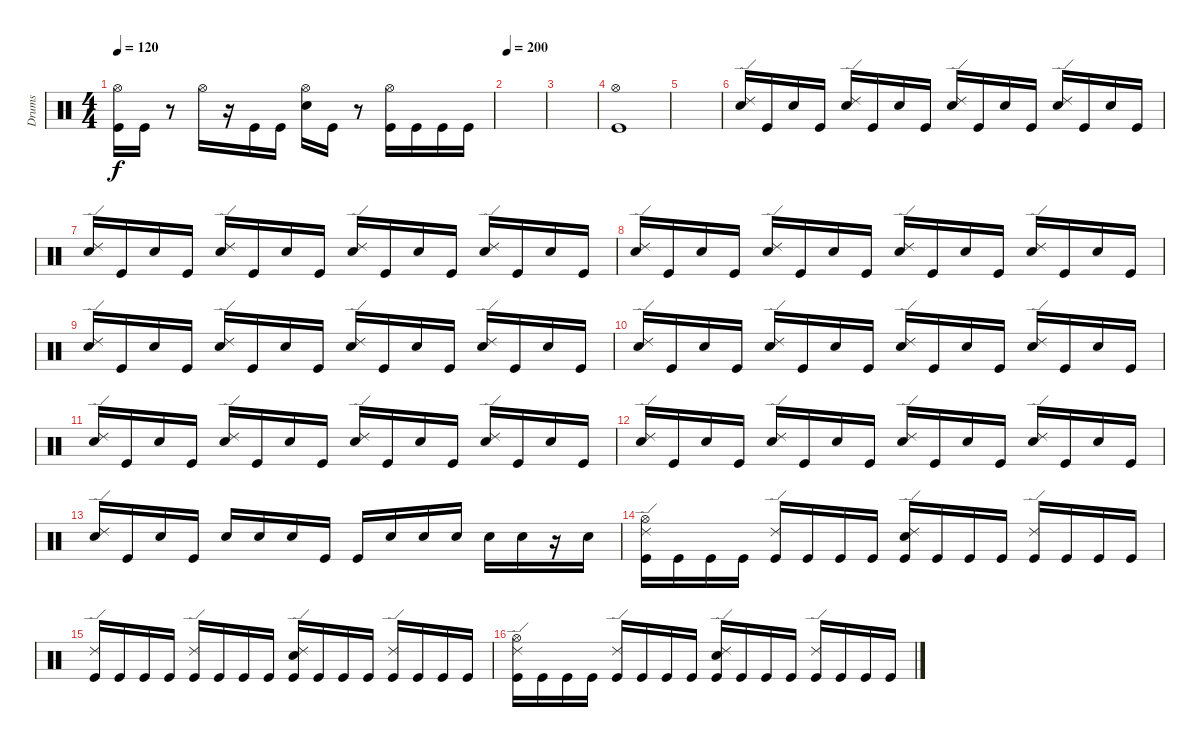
\track ("Drums" "Drums") {instrument percussion}
\staff {score}
\articulation defaults
\ts (4 4)
\tempo 120
\clef neutral
\ks c
("Hi-Hat (open)" "Kick (hit)").16{dy f} "Kick (hit)".16 r.8 "Hi-Hat (open)".16 r.16 "Kick (hit)".16 "Kick (hit)".16 ("Hi-Hat (open)" "Snare (hit) 2").16 "Kick (hit)".16 r.8 ("Hi-Hat (open)" "Kick (hit)").16 "Kick (hit)".16 "Kick (hit)".16 "Kick (hit)".16 |
\tempo 200
|
|
("Hi-Hat (open)" "Kick (hit)").1 |
|
("Ride (edge) 2" "Snare (hit) 2").16 "Kick (hit)".16 "Snare (hit) 2".16 "Kick (hit)".16 ("Ride (edge) 2" "Snare (hit) 2").16 "Kick (hit)".16 "Snare (hit) 2".16 "Kick (hit)".16 ("Ride (edge) 2" "Snare (hit) 2").16 "Kick (hit)".16 "Snare (hit) 2".16 "Kick (hit)".16 ("Ride (edge) 2" "Snare (hit) 2").16 "Kick (hit)".16 "Snare (hit) 2".16 "Kick (hit)".16 |
("Ride (edge) 2" "Snare (hit) 2").16 "Kick (hit)".16 "Snare (hit) 2".16 "Kick (hit)".16 ("Ride (edge) 2" "Snare (hit) 2").16 "Kick (hit)".16 "Snare (hit) 2".16 "Kick (hit)".16 ("Ride (edge) 2" "Snare (hit) 2").16 "Kick (hit)".16 "Snare (hit) 2".16 "Kick (hit)".16 ("Ride (edge) 2" "Snare (hit) 2").16 "Kick (hit)".16 "Snare (hit) 2".16 "Kick (hit)".16 |
("Ride (edge) 2" "Snare (hit) 2").16 "Kick (hit)".16 "Snare (hit) 2".16 "Kick (hit)".16 ("Ride (edge) 2" "Snare (hit) 2").16 "Kick (hit)".16 "Snare (hit) 2".16 "Kick (hit)".16 ("Ride (edge) 2" "Snare (hit) 2").16 "Kick (hit)".16 "Snare (hit) 2".16 "Kick (hit)".16 ("Ride (edge) 2" "Snare (hit) 2").16 "Kick (hit)".16 "Snare (hit) 2".16 "Kick (hit)".16 |
("Ride (edge) 2" "Snare (hit) 2").16 "Kick (hit)".16 "Snare (hit) 2".16 "Kick (hit)".16 ("Ride (edge) 2" "Snare (hit) 2").16 "Kick (hit)".16 "Snare (hit) 2".16 "Kick (hit)".16 ("Ride (edge) 2" "Snare (hit) 2").16 "Kick (hit)".16 "Snare (hit) 2".16 "Kick (hit)".16 ("Ride (edge) 2" "Snare (hit) 2").16 "Kick (hit)".16 "Snare (hit) 2".16 "Kick (hit)".16 |
("Ride (edge) 2" "Snare (hit) 2").16 "Kick (hit)".16 "Snare (hit) 2".16 "Kick (hit)".16 ("Ride (edge) 2" "Snare (hit) 2").16 "Kick (hit)".16 "Snare (hit) 2".16 "Kick (hit)".16 ("Ride (edge) 2" "Snare (hit) 2").16 "Kick (hit)".16 "Snare (hit) 2".16 "Kick (hit)".16 ("Ride (edge) 2" "Snare (hit) 2").16 "Kick (hit)".16 "Snare (hit) 2".16 "Kick (hit)".16 |
("Ride (edge) 2" "Snare (hit) 2").16 "Kick (hit)".16 "Snare (hit) 2".16 "Kick (hit)".16 ("Ride (edge) 2" "Snare (hit) 2").16 "Kick (hit)".16 "Snare (hit) 2".16 "Kick (hit)".16 ("Ride (edge) 2" "Snare (hit) 2").16 "Kick (hit)".16 "Snare (hit) 2".16 "Kick (hit)".16 ("Ride (edge) 2" "Snare (hit) 2").16 "Kick (hit)".16 "Snare (hit) 2".16 "Kick (hit)".16 |
("Ride (edge) 2" "Snare (hit) 2").16 "Kick (hit)".16 "Snare (hit) 2".16 "Kick (hit)".16 ("Ride (edge) 2" "Snare (hit) 2").16 "Kick (hit)".16 "Snare (hit) 2".16 "Kick (hit)".16 ("Ride (edge) 2" "Snare (hit) 2").16 "Kick (hit)".16 "Snare (hit) 2".16 "Kick (hit)".16 ("Ride (edge) 2" "Snare (hit) 2").16 "Kick (hit)".16 "Snare (hit) 2".16 "Kick (hit)".16 |
("Ride (edge) 2" "Snare (hit) 2").16 "Kick (hit)".16 "Snare (hit) 2".16 "Kick (hit)".16 "Snare (hit) 2".16 "Snare (hit) 2".16 "Snare (hit) 2".16 "Kick (hit)".16 "Kick (hit)".16 "Snare (hit) 2".16 "Snare (hit) 2".16 "Snare (hit) 2".16 "Snare (hit) 2".16 "Snare (hit) 2".16 r.16 "Snare (hit) 2".16 |
("Ride (edge) 2" "Hi-Hat (open)" "Kick (hit)").16 "Kick (hit)".16 "Kick (hit)".16 "Kick (hit)".16 ("Ride (edge) 2" "Kick (hit)").16 "Kick (hit)".16 "Kick (hit)".16 "Kick (hit)".16 ("Ride (edge) 2" "Snare (hit) 2" "Kick (hit)").16 "Kick (hit)".16 "Kick (hit)".16 "Kick (hit)".16 ("Ride (edge) 2" "Kick (hit)").16 "Kick (hit)".16 "Kick (hit)".16 "Kick (hit)".16 |
("Ride (edge) 2" "Kick (hit)").16 "Kick (hit)".16 "Kick (hit)".16 "Kick (hit)".16 ("Ride (edge) 2" "Kick (hit)").16 "Kick (hit)".16 "Kick (hit)".16 "Kick (hit)".16 ("Ride (edge) 2" "Snare (hit) 2" "Kick (hit)").16 "Kick (hit)".16 "Kick (hit)".16 "Kick (hit)".16 ("Ride (edge) 2" "Kick (hit)").16 "Kick (hit)".16 "Kick (hit)".16 "Kick (hit)".16 |
("Ride (edge) 2" "Hi-Hat (open)" "Kick (hit)").16 "Kick (hit)".16 "Kick (hit)".16 "Kick (hit)".16 ("Ride (edge) 2" "Kick (hit)").16 "Kick (hit)".16 "Kick (hit)".16 "Kick (hit)".16 ("Ride (edge) 2" "Snare (hit) 2" "Kick (hit)").16 "Kick (hit)".16 "Kick (hit)".16 "Kick (hit)".16 ("Ride (edge) 2" "Kick (hit)").16 "Kick (hit)".16 "Kick (hit)".16 "Kick (hit)".16
